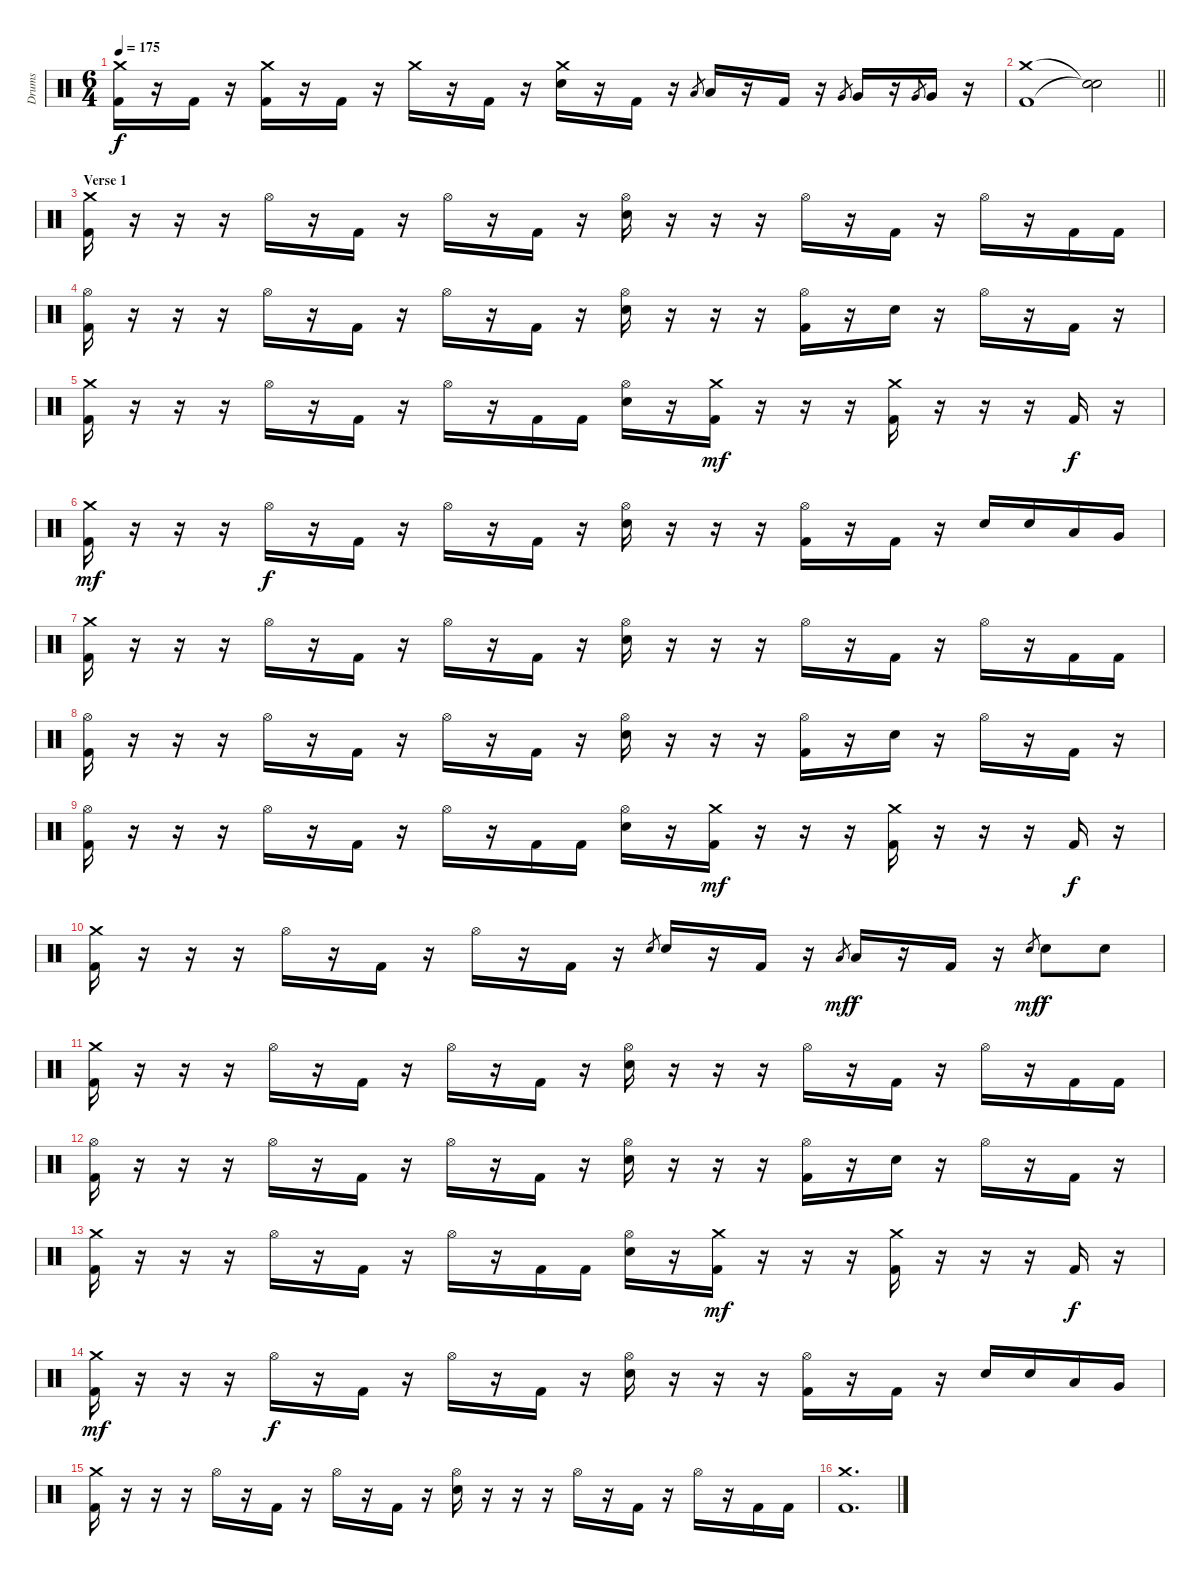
\track ("Drums" "Drums") {instrument percussion}
\staff {score}
\articulation defaults
\ts (6 4)
\tempo 175
\clef neutral
\ks c
("Crash medium (hit)" "Kick (hit) 2").16{dy f} r.16 "Kick (hit) 2".16 r.16 ("Crash medium (hit)" "Kick (hit) 2").16 r.16 "Kick (hit) 2".16 r.16 "Crash medium (hit)".16 r.16 "Kick (hit) 2".16 r.16 ("Crash medium (hit)" "Electric Snare (hit)").16 r.16 "Kick (hit) 2".16 r.16 "Low Tom (hit)".8{gr} "Low Tom (hit)".16 r.16 "Kick (hit) 2".16 r.16 "Very Low Tom (hit)".8{gr} "Very Low Tom (hit)".16 r.16 "Very Low Tom (hit)".8{gr} "Very Low Tom (hit)".16 r.16 |
\barLineRight lightlight
("Crash medium (hit)" "Kick (hit) 2").1 ("Snare (hit)"{t} "Snare (hit)"{t}).2 |
\section ("" "Verse 1")
("Crash medium (hit)" "Kick (hit) 2").16 r.16 r.16 r.16 "Hi-Hat (open)".16 r.16 "Kick (hit) 2".16 r.16 "Hi-Hat (open)".16 r.16 "Kick (hit) 2".16 r.16 ("Hi-Hat (open)" "Electric Snare (hit)").16 r.16 r.16 r.16 "Hi-Hat (open)".16 r.16 "Kick (hit) 2".16 r.16 "Hi-Hat (open)".16 r.16 "Kick (hit) 2".16 "Kick (hit) 2".16 |
("Hi-Hat (open)" "Kick (hit) 2").16 r.16 r.16 r.16 "Hi-Hat (open)".16 r.16 "Kick (hit) 2".16 r.16 "Hi-Hat (open)".16 r.16 "Kick (hit) 2".16 r.16 ("Hi-Hat (open)" "Electric Snare (hit)").16 r.16 r.16 r.16 ("Hi-Hat (open)" "Kick (hit) 2").16 r.16 "Electric Snare (hit)".16 r.16 "Hi-Hat (open)".16 r.16 "Kick (hit) 2".16 r.16 |
("Crash medium (hit)" "Kick (hit) 2").16 r.16 r.16 r.16 "Hi-Hat (open)".16 r.16 "Kick (hit) 2".16 r.16 "Hi-Hat (open)".16 r.16 "Kick (hit) 2".16 "Kick (hit) 2".16 ("Hi-Hat (open)" "Electric Snare (hit)").16 r.16 ("Crash medium (hit)" "Kick (hit) 2").16{dy mf} r.16 r.16 r.16 ("Crash medium (hit)" "Kick (hit) 2").16 r.16 r.16 r.16 "Kick (hit) 2".16{dy f} r.16 |
("Crash medium (hit)" "Kick (hit) 2").16{dy mf} r.16 r.16 r.16 "Hi-Hat (open)".16{dy f} r.16 "Kick (hit) 2".16 r.16 "Hi-Hat (open)".16 r.16 "Kick (hit) 2".16 r.16 ("Hi-Hat (open)" "Electric Snare (hit)").16 r.16 r.16 r.16 ("Hi-Hat (open)" "Kick (hit) 2").16 r.16 "Kick (hit) 2".16 r.16 "Electric Snare (hit)".16 "Electric Snare (hit)".16 "Low Tom (hit)".16 "Very Low Tom (hit)".16 |
("Crash medium (hit)" "Kick (hit) 2").16 r.16 r.16 r.16 "Hi-Hat (open)".16 r.16 "Kick (hit) 2".16 r.16 "Hi-Hat (open)".16 r.16 "Kick (hit) 2".16 r.16 ("Hi-Hat (open)" "Electric Snare (hit)").16 r.16 r.16 r.16 "Hi-Hat (open)".16 r.16 "Kick (hit) 2".16 r.16 "Hi-Hat (open)".16 r.16 "Kick (hit) 2".16 "Kick (hit) 2".16 |
("Hi-Hat (open)" "Kick (hit) 2").16 r.16 r.16 r.16 "Hi-Hat (open)".16 r.16 "Kick (hit) 2".16 r.16 "Hi-Hat (open)".16 r.16 "Kick (hit) 2".16 r.16 ("Hi-Hat (open)" "Electric Snare (hit)").16 r.16 r.16 r.16 ("Hi-Hat (open)" "Kick (hit) 2").16 r.16 "Electric Snare (hit)".16 r.16 "Hi-Hat (open)".16 r.16 "Kick (hit) 2".16 r.16 |
("Hi-Hat (open)" "Kick (hit) 2").16 r.16 r.16 r.16 "Hi-Hat (open)".16 r.16 "Kick (hit) 2".16 r.16 "Hi-Hat (open)".16 r.16 "Kick (hit) 2".16 "Kick (hit) 2".16 ("Hi-Hat (open)" "Electric Snare (hit)").16 r.16 ("Crash medium (hit)" "Kick (hit) 2").16{dy mf} r.16 r.16 r.16 ("Crash medium (hit)" "Kick (hit) 2").16 r.16 r.16 r.16 "Kick (hit) 2".16{dy f} r.16 |
("Crash medium (hit)" "Kick (hit) 2").16 r.16 r.16 r.16 "Hi-Hat (open)".16 r.16 "Kick (hit) 2".16 r.16 "Hi-Hat (open)".16 r.16 "Kick (hit) 2".16 r.16 "Electric Snare (hit)".8{gr} "Electric Snare (hit)".16 r.16 "Kick (hit) 2".16 r.16 "Low Tom (hit)".8{gr dy mf} "Low Tom (hit)".16{dy f} r.16 "Kick (hit) 2".16 r.16 "Electric Snare (hit)".8{gr dy mf} "Electric Snare (hit)".8{dy f} "Electric Snare (hit)".8 |
("Crash medium (hit)" "Kick (hit) 2").16 r.16 r.16 r.16 "Hi-Hat (open)".16 r.16 "Kick (hit) 2".16 r.16 "Hi-Hat (open)".16 r.16 "Kick (hit) 2".16 r.16 ("Hi-Hat (open)" "Electric Snare (hit)").16 r.16 r.16 r.16 "Hi-Hat (open)".16 r.16 "Kick (hit) 2".16 r.16 "Hi-Hat (open)".16 r.16 "Kick (hit) 2".16 "Kick (hit) 2".16 |
("Hi-Hat (open)" "Kick (hit) 2").16 r.16 r.16 r.16 "Hi-Hat (open)".16 r.16 "Kick (hit) 2".16 r.16 "Hi-Hat (open)".16 r.16 "Kick (hit) 2".16 r.16 ("Hi-Hat (open)" "Electric Snare (hit)").16 r.16 r.16 r.16 ("Hi-Hat (open)" "Kick (hit) 2").16 r.16 "Electric Snare (hit)".16 r.16 "Hi-Hat (open)".16 r.16 "Kick (hit) 2".16 r.16 |
("Crash medium (hit)" "Kick (hit) 2").16 r.16 r.16 r.16 "Hi-Hat (open)".16 r.16 "Kick (hit) 2".16 r.16 "Hi-Hat (open)".16 r.16 "Kick (hit) 2".16 "Kick (hit) 2".16 ("Hi-Hat (open)" "Electric Snare (hit)").16 r.16 ("Crash medium (hit)" "Kick (hit) 2").16{dy mf} r.16 r.16 r.16 ("Crash medium (hit)" "Kick (hit) 2").16 r.16 r.16 r.16 "Kick (hit) 2".16{dy f} r.16 |
("Crash medium (hit)" "Kick (hit) 2").16{dy mf} r.16 r.16 r.16 "Hi-Hat (open)".16{dy f} r.16 "Kick (hit) 2".16 r.16 "Hi-Hat (open)".16 r.16 "Kick (hit) 2".16 r.16 ("Hi-Hat (open)" "Electric Snare (hit)").16 r.16 r.16 r.16 ("Hi-Hat (open)" "Kick (hit) 2").16 r.16 "Kick (hit) 2".16 r.16 "Electric Snare (hit)".16 "Electric Snare (hit)".16 "Low Tom (hit)".16 "Very Low Tom (hit)".16 |
("Crash medium (hit)" "Kick (hit) 2").16 r.16 r.16 r.16 "Hi-Hat (open)".16 r.16 "Kick (hit) 2".16 r.16 "Hi-Hat (open)".16 r.16 "Kick (hit) 2".16 r.16 ("Hi-Hat (open)" "Electric Snare (hit)").16 r.16 r.16 r.16 "Hi-Hat (open)".16 r.16 "Kick (hit) 2".16 r.16 "Hi-Hat (open)".16 r.16 "Kick (hit) 2".16 "Kick (hit) 2".16 |
("Crash medium (hit)" "Kick (hit) 2").1{d}
